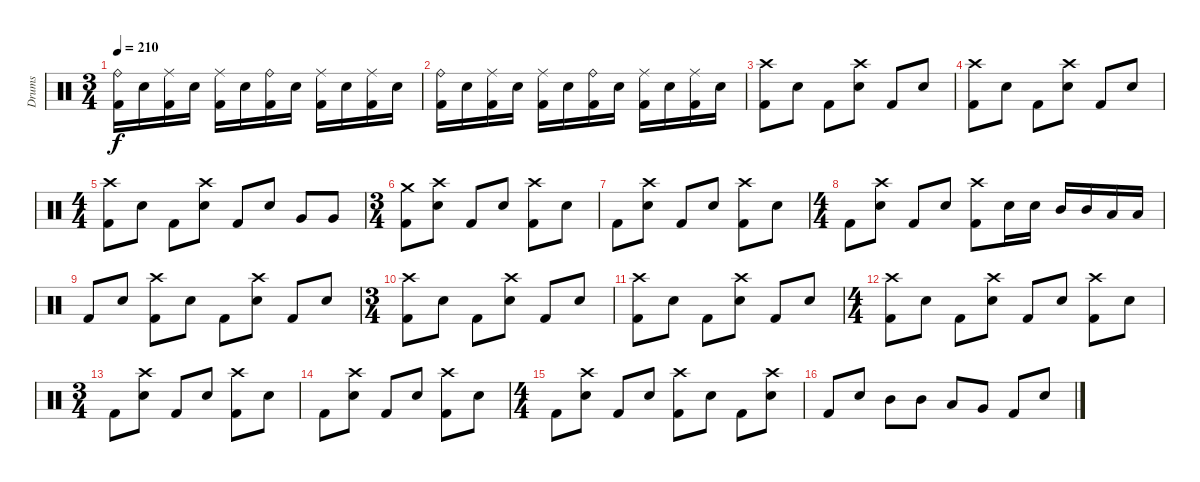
\track ("Drums" "Drums") {instrument percussion}
\staff {score}
\articulation defaults
\ts (3 4)
\tempo 210
\clef neutral
\ks c
("Ride (bell)" "Kick (hit) 2").16{dy f} "Electric Snare (hit)".16 ("Ride (middle)" "Kick (hit) 2").16 "Electric Snare (hit)".16 ("Ride (middle)" "Kick (hit) 2").16 "Electric Snare (hit)".16 ("Ride (bell)" "Kick (hit) 2").16 "Electric Snare (hit)".16 ("Ride (middle)" "Kick (hit) 2").16 "Electric Snare (hit)".16 ("Ride (middle)" "Kick (hit) 2").16 "Electric Snare (hit)".16 |
("Ride (bell)" "Kick (hit) 2").16 "Electric Snare (hit)".16 ("Ride (middle)" "Kick (hit) 2").16 "Electric Snare (hit)".16 ("Ride (middle)" "Kick (hit) 2").16 "Electric Snare (hit)".16 ("Ride (bell)" "Kick (hit) 2").16 "Electric Snare (hit)".16 ("Ride (middle)" "Kick (hit) 2").16 "Electric Snare (hit)".16 ("Ride (middle)" "Kick (hit) 2").16 "Electric Snare (hit)".16 |
("Crash high (hit)" "Kick (hit) 2").8 "Electric Snare (hit)".8 "Kick (hit) 2".8 ("Crash high (hit)" "Electric Snare (hit)").8 "Kick (hit) 2".8 "Electric Snare (hit)".8 |
("Crash high (hit)" "Kick (hit) 2").8 "Electric Snare (hit)".8 "Kick (hit) 2".8 ("Crash high (hit)" "Electric Snare (hit)").8 "Kick (hit) 2".8 "Electric Snare (hit)".8 |
\ts (4 4)
("Crash high (hit)" "Kick (hit) 2").8 "Electric Snare (hit)".8 "Kick (hit) 2".8 ("Crash high (hit)" "Electric Snare (hit)").8 "Kick (hit) 2".8 "Electric Snare (hit)".8 "Very Low Tom (hit)".8 "Very Low Tom (hit)".8 |
\ts (3 4)
("Crash medium (hit)" "Kick (hit) 2").8 ("Crash high (hit)" "Electric Snare (hit)").8 "Kick (hit) 2".8 "Electric Snare (hit)".8 ("Crash high (hit)" "Kick (hit) 2").8 "Electric Snare (hit)".8 |
"Kick (hit) 2".8 ("Crash high (hit)" "Electric Snare (hit)").8 "Kick (hit) 2".8 "Electric Snare (hit)".8 ("Crash high (hit)" "Kick (hit) 2").8 "Electric Snare (hit)".8 |
\ts (4 4)
"Kick (hit) 2".8 ("Crash high (hit)" "Electric Snare (hit)").8 "Kick (hit) 2".8 "Electric Snare (hit)".8 ("Crash high (hit)" "Kick (hit) 2").8 "Electric Snare (hit)".16 "Electric Snare (hit)".16 "Mid Tom (hit)".16 "Mid Tom (hit)".16 "Low Tom (hit)".16 "Low Tom (hit)".16 |
"Kick (hit) 2".8 "Electric Snare (hit)".8 ("Crash high (hit)" "Kick (hit) 2").8 "Electric Snare (hit)".8 "Kick (hit) 2".8 ("Crash high (hit)" "Electric Snare (hit)").8 "Kick (hit) 2".8 "Electric Snare (hit)".8 |
\ts (3 4)
("Crash high (hit)" "Kick (hit) 2").8 "Electric Snare (hit)".8 "Kick (hit) 2".8 ("Crash high (hit)" "Electric Snare (hit)").8 "Kick (hit) 2".8 "Electric Snare (hit)".8 |
("Crash high (hit)" "Kick (hit) 2").8 "Electric Snare (hit)".8 "Kick (hit) 2".8 ("Crash high (hit)" "Electric Snare (hit)").8 "Kick (hit) 2".8 "Electric Snare (hit)".8 |
\ts (4 4)
("Crash high (hit)" "Kick (hit) 2").8 "Electric Snare (hit)".8 "Kick (hit) 2".8 ("Crash high (hit)" "Electric Snare (hit)").8 "Kick (hit) 2".8 "Electric Snare (hit)".8 ("Crash high (hit)" "Kick (hit) 2").8 "Electric Snare (hit)".8 |
\ts (3 4)
"Kick (hit) 2".8 ("Crash high (hit)" "Electric Snare (hit)").8 "Kick (hit) 2".8 "Electric Snare (hit)".8 ("Crash high (hit)" "Kick (hit) 2").8 "Electric Snare (hit)".8 |
"Kick (hit) 2".8 ("Crash high (hit)" "Electric Snare (hit)").8 "Kick (hit) 2".8 "Electric Snare (hit)".8 ("Crash high (hit)" "Kick (hit) 2").8 "Electric Snare (hit)".8 |
\ts (4 4)
"Kick (hit) 2".8 ("Crash high (hit)" "Electric Snare (hit)").8 "Kick (hit) 2".8 "Electric Snare (hit)".8 ("Crash high (hit)" "Kick (hit) 2").8 "Electric Snare (hit)".8 "Kick (hit) 2".8 ("Crash high (hit)" "Electric Snare (hit)").8 |
"Kick (hit) 2".8 "Electric Snare (hit)".8 "Mid Tom (hit)".8 "Mid Tom (hit)".8 "Low Tom (hit)".8 "Very Low Tom (hit)".8 "Kick (hit) 2".8 "Electric Snare (hit)".8
